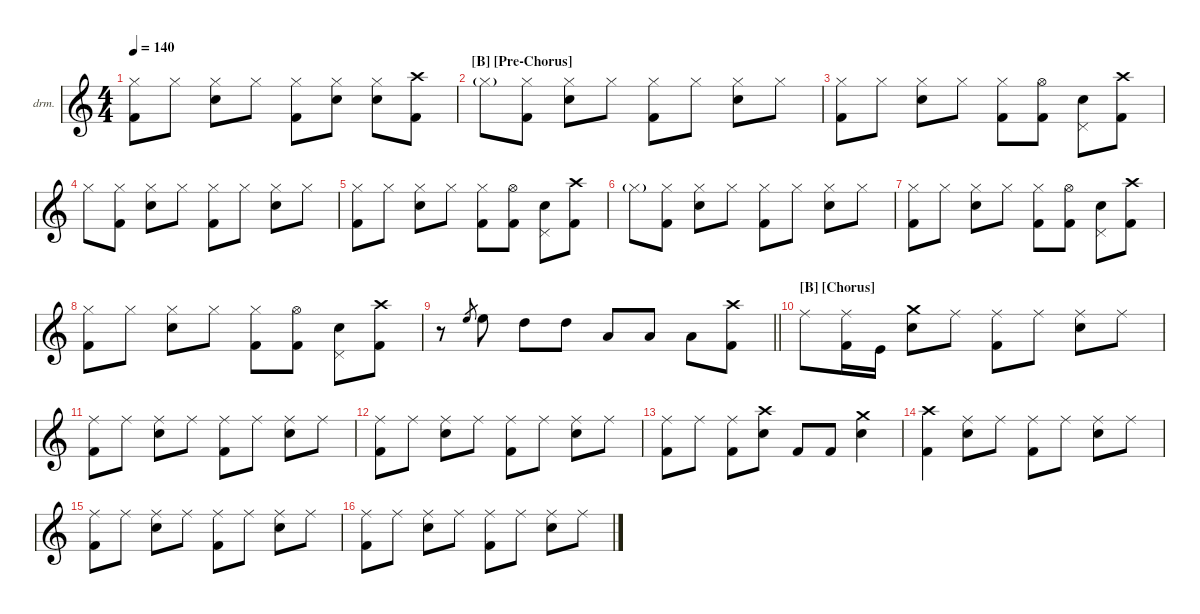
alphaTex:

\defaultSystemsLayout 4
\hideDynamics
\bracketExtendMode nobrackets
\firstSystemTrackNameOrientation horizontal
\track ("Sepehr Tajbakhsh {Nick Menza}" "drm.") {instrument percussion}
\staff {score}
\articulation defaults
\ts (4 4)
\tempo 140
\clef g2
\ks c
("Hi-Hat (closed)" "Kick (hit) 2").8{dy f beam Down} "Hi-Hat (closed)".8{beam Down} ("Hi-Hat (closed)" "Snare (hit) 2").8{beam Down} "Hi-Hat (closed)".8{beam Down} ("Hi-Hat (closed)" "Kick (hit) 2").8{beam Down} ("Hi-Hat (closed)" "Snare (hit) 2").8{beam Down} ("Hi-Hat (closed)" "Snare (hit) 2").8{beam Down} ("Crash high (hit)" "Kick (hit) 2").8{beam Down} |
\section ("B" "[Pre-Chorus]")
"Hi-Hat (closed)"{g}.8{beam Down} ("Hi-Hat (closed)" "Kick (hit) 2").8{beam Down} ("Hi-Hat (closed)" "Snare (hit) 2").8{beam Down} "Hi-Hat (closed)".8{beam Down} ("Hi-Hat (closed)" "Kick (hit) 2").8{beam Down} "Hi-Hat (closed)".8{beam Down} ("Hi-Hat (closed)" "Snare (hit) 2").8{beam Down} "Hi-Hat (closed)".8{beam Down} |
("Hi-Hat (closed)" "Kick (hit) 2").8{beam Down} "Hi-Hat (closed)".8{beam Down} ("Hi-Hat (closed)" "Snare (hit) 2").8{beam Down} "Hi-Hat (closed)".8{beam Down} ("Hi-Hat (closed)" "Kick (hit) 2").8{beam Down} ("Hi-Hat (open)" "Kick (hit) 2").8{beam Down} ("Snare (hit) 2" "Pedal Hi-Hat (hit)").8{beam Down} ("Crash high (hit)" "Kick (hit) 2").8{beam Down} |
"Hi-Hat (closed)".8{beam Down} ("Hi-Hat (closed)" "Kick (hit) 2").8{beam Down} ("Hi-Hat (closed)" "Snare (hit) 2").8{beam Down} "Hi-Hat (closed)".8{beam Down} ("Hi-Hat (closed)" "Kick (hit) 2").8{beam Down} "Hi-Hat (closed)".8{beam Down} ("Hi-Hat (closed)" "Snare (hit) 2").8{beam Down} "Hi-Hat (closed)".8{beam Down} |
("Hi-Hat (closed)" "Kick (hit) 2").8{beam Down} "Hi-Hat (closed)".8{beam Down} ("Hi-Hat (closed)" "Snare (hit) 2").8{beam Down} "Hi-Hat (closed)".8{beam Down} ("Hi-Hat (closed)" "Kick (hit) 2").8{beam Down} ("Hi-Hat (open)" "Kick (hit) 2").8{beam Down} ("Snare (hit) 2" "Pedal Hi-Hat (hit)").8{beam Down} ("Crash high (hit)" "Kick (hit) 2").8{beam Down} |
"Hi-Hat (closed)"{g}.8{beam Down} ("Hi-Hat (closed)" "Kick (hit) 2").8{beam Down} ("Hi-Hat (closed)" "Snare (hit) 2").8{beam Down} "Hi-Hat (closed)".8{beam Down} ("Hi-Hat (closed)" "Kick (hit) 2").8{beam Down} "Hi-Hat (closed)".8{beam Down} ("Hi-Hat (closed)" "Snare (hit) 2").8{beam Down} "Hi-Hat (closed)".8{beam Down} |
("Hi-Hat (closed)" "Kick (hit) 2").8{beam Down} "Hi-Hat (closed)".8{beam Down} ("Hi-Hat (closed)" "Snare (hit) 2").8{beam Down} "Hi-Hat (closed)".8{beam Down} ("Hi-Hat (closed)" "Kick (hit) 2").8{beam Down} ("Hi-Hat (open)" "Kick (hit) 2").8{beam Down} ("Snare (hit) 2" "Pedal Hi-Hat (hit)").8{beam Down} ("Crash high (hit)" "Kick (hit) 2").8{beam Down} |
("Hi-Hat (closed)" "Kick (hit) 2").8{beam Down} "Hi-Hat (closed)".8{beam Down} ("Hi-Hat (closed)" "Snare (hit) 2").8{beam Down} "Hi-Hat (closed)".8{beam Down} ("Hi-Hat (closed)" "Kick (hit) 2").8{beam Down} ("Hi-Hat (open)" "Kick (hit) 2").8{beam Down} ("Snare (hit) 2" "Pedal Hi-Hat (hit)").8{beam Down} ("Crash high (hit)" "Kick (hit) 2").8{beam Down} |
\barLineRight lightlight
r.8{beam Down} "High Floor Tom (hit)".8{gr beam Up} "High Floor Tom (hit)".8{beam Down} "High Tom (hit)".8{beam Down} "High Tom (hit)".8{beam Down} "Low Tom (hit)".8{beam Up} "Low Tom (hit)".8{beam Up} "Low Tom (hit)".8{beam Down} ("Crash high (hit)" "Kick (hit) 2").8{beam Down} |
\section ("B" "[Chorus]")
"Ride (middle)".8{beam Down} ("Ride (middle)" "Kick (hit) 2").16{beam Down} "Kick (hit)".16{dy fff beam Down} ("Crash medium (hit)" "Snare (hit) 2").8{dy f beam Down} "Ride (middle)".8{beam Down} ("Ride (middle)" "Kick (hit) 2").8{beam Down} "Ride (middle)".8{beam Down} ("Ride (middle)" "Snare (hit) 2").8{beam Down} "Ride (middle)".8{beam Down} |
("Ride (middle)" "Kick (hit) 2").8{beam Down} "Ride (middle)".8{beam Down} ("Ride (middle)" "Snare (hit) 2").8{beam Down} "Ride (middle)".8{beam Down} ("Ride (middle)" "Kick (hit) 2").8{beam Down} "Ride (middle)".8{beam Down} ("Ride (middle)" "Snare (hit) 2").8{beam Down} "Ride (middle)".8{beam Down} |
("Ride (middle)" "Kick (hit) 2").8{beam Down} "Ride (middle)".8{beam Down} ("Ride (middle)" "Snare (hit) 2").8{beam Down} "Ride (middle)".8{beam Down} ("Ride (middle)" "Kick (hit) 2").8{beam Down} "Ride (middle)".8{beam Down} ("Ride (middle)" "Snare (hit) 2").8{beam Down} "Ride (middle)".8{beam Down} |
("Ride (middle)" "Kick (hit) 2").8{beam Down} "Ride (middle)".8{beam Down} ("Ride (middle)" "Kick (hit) 2").8{beam Down} ("Crash high (hit)" "Snare (hit) 2").8{beam Down} "Kick (hit) 2".8{dy fff beam Up} "Kick (hit) 2".8{beam Up} ("Crash medium (hit)" "Snare (hit) 2").4{dy f beam Down} |
("Crash high (hit)" "Kick (hit) 2").4{beam Down} ("Ride (middle)" "Snare (hit) 2").8{beam Down} "Ride (middle)".8{beam Down} ("Ride (middle)" "Kick (hit) 2").8{beam Down} "Ride (middle)".8{beam Down} ("Ride (middle)" "Snare (hit) 2").8{beam Down} "Ride (middle)".8{beam Down} |
("Ride (middle)" "Kick (hit) 2").8{beam Down} "Ride (middle)".8{beam Down} ("Ride (middle)" "Snare (hit) 2").8{beam Down} "Ride (middle)".8{beam Down} ("Ride (middle)" "Kick (hit) 2").8{beam Down} "Ride (middle)".8{beam Down} ("Ride (middle)" "Snare (hit) 2").8{beam Down} "Ride (middle)".8{beam Down} |
("Ride (middle)" "Kick (hit) 2").8{beam Down} "Ride (middle)".8{beam Down} ("Ride (middle)" "Snare (hit) 2").8{beam Down} "Ride (middle)".8{beam Down} ("Ride (middle)" "Kick (hit) 2").8{beam Down} "Ride (middle)".8{beam Down} ("Ride (middle)" "Snare (hit) 2").8{beam Down} "Ride (middle)".8{beam Down}
